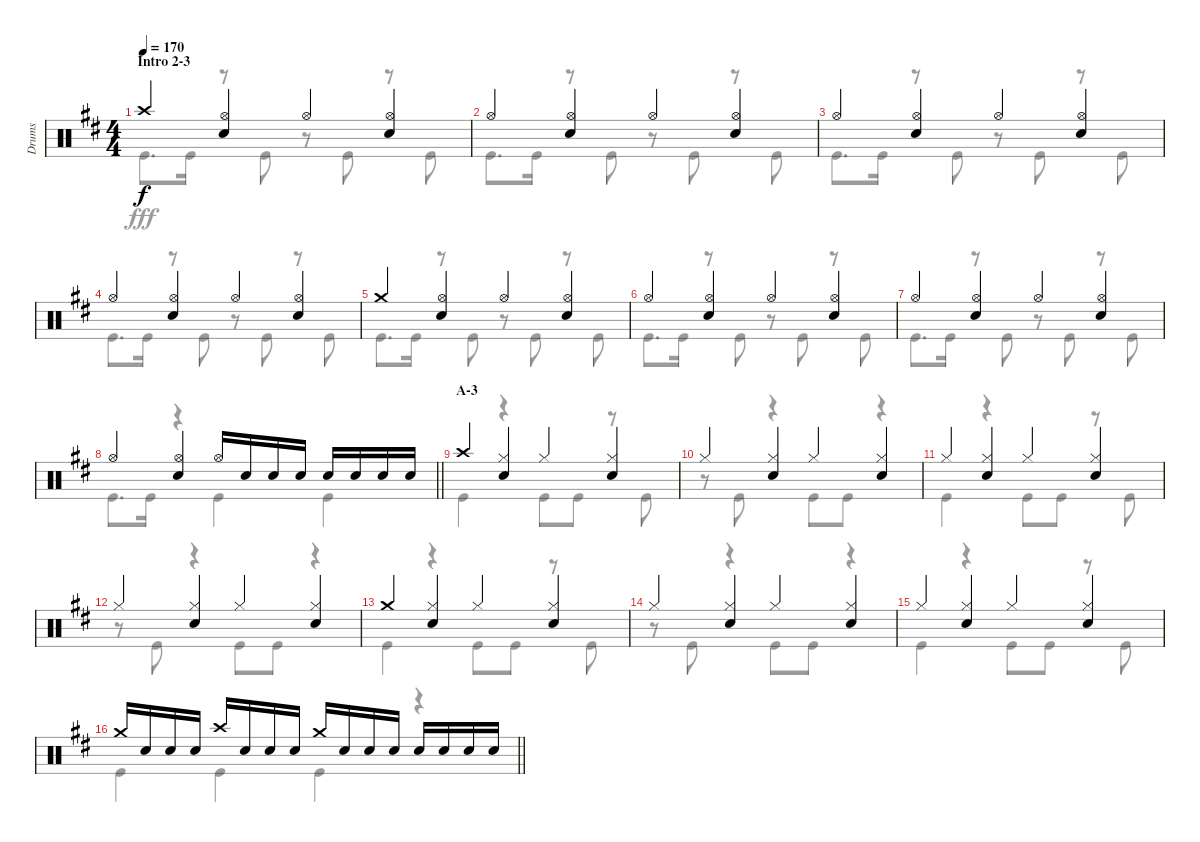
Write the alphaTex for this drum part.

\track ("Drums" "Drums") {instrument percussion}
\staff {score}
\articulation defaults
\voice
\ts (4 4)
\section ("" "Intro 2-3")
\tempo 170
\clef neutral
\ks d "Crash high (hit)".4{dy f}
("Hi-Hat (open)" "Snare (hit) 2").4 "Hi-Hat (open)".4 ("Hi-Hat (open)" "Snare (hit) 2").4 |
"Hi-Hat (open)".4 ("Hi-Hat (open)" "Snare (hit) 2").4 "Hi-Hat (open)".4 ("Hi-Hat (open)" "Snare (hit) 2").4 |
"Hi-Hat (open)".4 ("Hi-Hat (open)" "Snare (hit) 2").4 "Hi-Hat (open)".4 ("Hi-Hat (open)" "Snare (hit) 2").4 |
"Hi-Hat (open)".4 ("Hi-Hat (open)" "Snare (hit) 2").4 "Hi-Hat (open)".4 ("Hi-Hat (open)" "Snare (hit) 2").4 |
"Crash medium (hit)".4 ("Hi-Hat (open)" "Snare (hit) 2").4 "Hi-Hat (open)".4 ("Hi-Hat (open)" "Snare (hit) 2").4 |
"Hi-Hat (open)".4 ("Hi-Hat (open)" "Snare (hit) 2").4 "Hi-Hat (open)".4 ("Hi-Hat (open)" "Snare (hit) 2").4 |
"Hi-Hat (open)".4 ("Hi-Hat (open)" "Snare (hit) 2").4 "Hi-Hat (open)".4 ("Hi-Hat (open)" "Snare (hit) 2").4 |
\barLineRight lightlight "Hi-Hat (open)".4
("Hi-Hat (open)" "Snare (hit) 2").4 "Hi-Hat (open)".16 "Snare (hit) 2".16 "Snare (hit) 2".16 "Snare (hit) 2".16 "Snare (hit) 2".16 "Snare (hit) 2".16 "Snare (hit) 2".16 "Snare (hit) 2".16 |
\section ("" "A-3")
"Crash high (hit)".4 ("Hi-Hat (closed)" "Snare (hit) 2").4 "Hi-Hat (closed)".4 ("Hi-Hat (closed)" "Snare (hit) 2").4 |
"Hi-Hat (closed)".4 ("Hi-Hat (closed)" "Snare (hit) 2").4 "Hi-Hat (closed)".4 ("Hi-Hat (closed)" "Snare (hit) 2").4 |
"Hi-Hat (closed)".4 ("Hi-Hat (closed)" "Snare (hit) 2").4 "Hi-Hat (closed)".4 ("Hi-Hat (closed)" "Snare (hit) 2").4 |
"Hi-Hat (closed)".4 ("Hi-Hat (closed)" "Snare (hit) 2").4 "Hi-Hat (closed)".4 ("Hi-Hat (closed)" "Snare (hit) 2").4 |
"Crash medium (hit)".4 ("Hi-Hat (closed)" "Snare (hit) 2").4 "Hi-Hat (closed)".4 ("Hi-Hat (closed)" "Snare (hit) 2").4 |
"Hi-Hat (closed)".4 ("Hi-Hat (closed)" "Snare (hit) 2").4 "Hi-Hat (closed)".4 ("Hi-Hat (closed)" "Snare (hit) 2").4 |
"Hi-Hat (closed)".4 ("Hi-Hat (closed)" "Snare (hit) 2").4 "Hi-Hat (closed)".4 ("Hi-Hat (closed)" "Snare (hit) 2").4 |
\barLineRight lightlight "Crash medium (hit)".16 "Snare (hit) 2".16 "Snare (hit) 2".16 "Snare (hit) 2".16 "Crash high (hit)".16 "Snare (hit) 2".16 "Snare (hit) 2".16 "Snare (hit) 2".16 "Crash medium (hit)".16 "Snare (hit) 2".16 "Snare (hit) 2".16 "Snare (hit) 2".16 "Snare (hit) 2".16 "Snare (hit) 2".16 "Snare (hit) 2".16 "Snare (hit) 2".16
\voice
\clef neutral
\ottava regular
\simile none
\ks d "Kick (hit)".8{d dy fff} "Kick (hit)".16
r.8 "Kick (hit)".8 r.8 "Kick (hit)".8 r.8 "Kick (hit)".8 |
"Kick (hit)".8{d} "Kick (hit)".16 r.8 "Kick (hit)".8 r.8 "Kick (hit)".8 r.8 "Kick (hit)".8 |
"Kick (hit)".8{d} "Kick (hit)".16 r.8 "Kick (hit)".8 r.8 "Kick (hit)".8 r.8 "Kick (hit)".8 |
"Kick (hit)".8{d} "Kick (hit)".16 r.8 "Kick (hit)".8 r.8 "Kick (hit)".8 r.8 "Kick (hit)".8 |
"Kick (hit)".8{d} "Kick (hit)".16 r.8 "Kick (hit)".8 r.8 "Kick (hit)".8 r.8 "Kick (hit)".8 |
"Kick (hit)".8{d} "Kick (hit)".16 r.8 "Kick (hit)".8 r.8 "Kick (hit)".8 r.8 "Kick (hit)".8 |
"Kick (hit)".8{d} "Kick (hit)".16 r.8 "Kick (hit)".8 r.8 "Kick (hit)".8 r.8 "Kick (hit)".8 |
\barLineRight lightlight "Kick (hit)".8{d} "Kick (hit)".16
r.4 "Kick (hit)".4 "Kick (hit)".4 |
"Kick (hit)".4 r.4 "Kick (hit)".8 "Kick (hit)".8 r.8 "Kick (hit)".8 |
r.8 "Kick (hit)".8 r.4 "Kick (hit)".8 "Kick (hit)".8 r.4 |
"Kick (hit)".4 r.4 "Kick (hit)".8 "Kick (hit)".8 r.8 "Kick (hit)".8 |
r.8 "Kick (hit)".8 r.4 "Kick (hit)".8 "Kick (hit)".8 r.4 |
"Kick (hit)".4 r.4 "Kick (hit)".8 "Kick (hit)".8 r.8 "Kick (hit)".8 |
r.8 "Kick (hit)".8 r.4 "Kick (hit)".8 "Kick (hit)".8 r.4 |
"Kick (hit)".4 r.4 "Kick (hit)".8 "Kick (hit)".8 r.8 "Kick (hit)".8 |
\barLineRight lightlight "Kick (hit)".4 "Kick (hit)".4 "Kick (hit)".4
r.4
